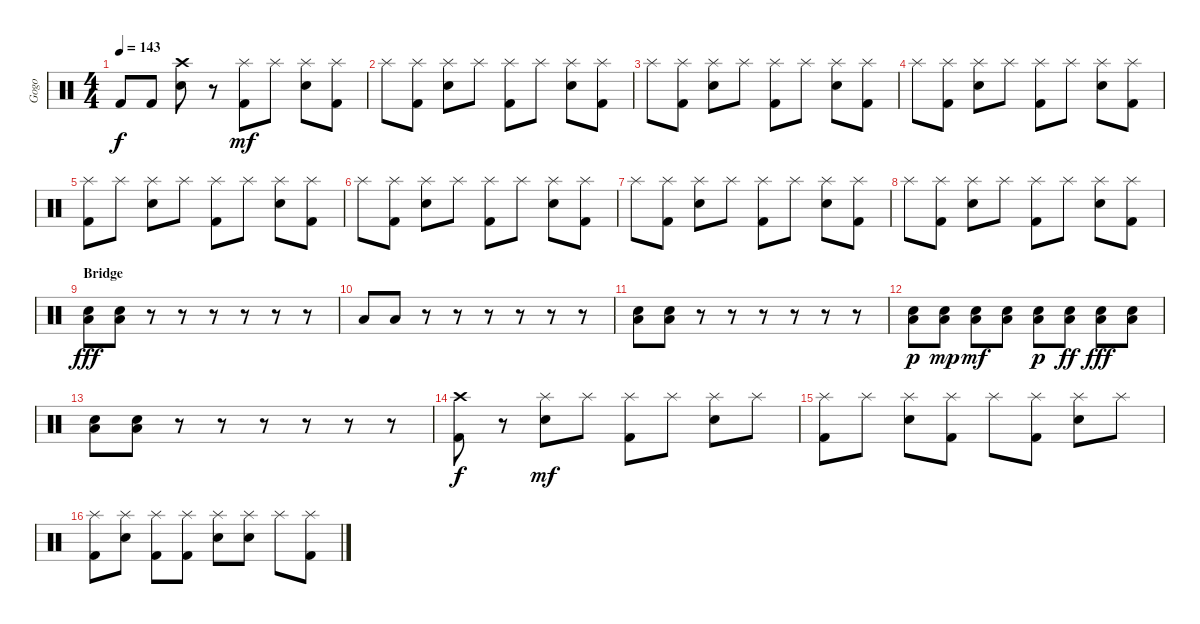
\track ("Gogo" "Gogo") {instrument percussion}
\staff {score}
\articulation defaults
\ts (4 4)
\tempo 143
\clef neutral
\ks c "Kick (hit) 2".8{dy f} "Kick (hit) 2".8
("Crash high (hit)" "Electric Snare (hit)").8 r.8 ("Splash (hit)" "Kick (hit) 2").8{dy mf} "Splash (hit)".8 ("Splash (hit)" "Electric Snare (hit)").8 ("Splash (hit)" "Kick (hit) 2").8 |
"Splash (hit)".8 ("Splash (hit)" "Kick (hit) 2").8 ("Splash (hit)" "Electric Snare (hit)").8 "Splash (hit)".8 ("Splash (hit)" "Kick (hit) 2").8 "Splash (hit)".8 ("Splash (hit)" "Electric Snare (hit)").8 ("Splash (hit)" "Kick (hit) 2").8 |
"Splash (hit)".8 ("Splash (hit)" "Kick (hit) 2").8 ("Splash (hit)" "Electric Snare (hit)").8 "Splash (hit)".8 ("Splash (hit)" "Kick (hit) 2").8 "Splash (hit)".8 ("Splash (hit)" "Electric Snare (hit)").8 ("Splash (hit)" "Kick (hit) 2").8 |
"Splash (hit)".8 ("Splash (hit)" "Kick (hit) 2").8 ("Splash (hit)" "Electric Snare (hit)").8 "Splash (hit)".8 ("Splash (hit)" "Kick (hit) 2").8 "Splash (hit)".8 ("Splash (hit)" "Electric Snare (hit)").8 ("Splash (hit)" "Kick (hit) 2").8 |
("Splash (hit)" "Kick (hit) 2").8 "Splash (hit)".8 ("Splash (hit)" "Electric Snare (hit)").8 "Splash (hit)".8 ("Splash (hit)" "Kick (hit) 2").8 "Splash (hit)".8 ("Splash (hit)" "Electric Snare (hit)").8 ("Splash (hit)" "Kick (hit) 2").8 |
"Splash (hit)".8 ("Splash (hit)" "Kick (hit) 2").8 ("Splash (hit)" "Electric Snare (hit)").8 "Splash (hit)".8 ("Splash (hit)" "Kick (hit) 2").8 "Splash (hit)".8 ("Splash (hit)" "Electric Snare (hit)").8 ("Splash (hit)" "Kick (hit) 2").8 |
"Splash (hit)".8 ("Splash (hit)" "Kick (hit) 2").8 ("Splash (hit)" "Electric Snare (hit)").8 "Splash (hit)".8 ("Splash (hit)" "Kick (hit) 2").8 "Splash (hit)".8 ("Splash (hit)" "Electric Snare (hit)").8 ("Splash (hit)" "Kick (hit) 2").8 |
"Splash (hit)".8 ("Splash (hit)" "Kick (hit) 2").8 ("Splash (hit)" "Electric Snare (hit)").8 "Splash (hit)".8 ("Splash (hit)" "Kick (hit) 2").8 "Splash (hit)".8 ("Splash (hit)" "Electric Snare (hit)").8 ("Splash (hit)" "Kick (hit) 2").8 |
\section ("" "Bridge")
("Electric Snare (hit)" "Low Floor Tom (hit)").8{dy fff} ("Electric Snare (hit)" "Low Floor Tom (hit)").8 r.8 r.8 r.8 r.8 r.8 r.8 |
"Low Floor Tom (hit)".8 "Low Floor Tom (hit)".8 r.8 r.8 r.8 r.8 r.8 r.8 |
("Electric Snare (hit)" "Low Floor Tom (hit)").8 ("Electric Snare (hit)" "Low Floor Tom (hit)").8 r.8 r.8 r.8 r.8 r.8 r.8 |
("Electric Snare (hit)" "Low Floor Tom (hit)").8{dy p} ("Electric Snare (hit)" "Low Floor Tom (hit)").8{dy mp} ("Electric Snare (hit)" "Low Floor Tom (hit)").8{dy mf} ("Electric Snare (hit)" "Low Floor Tom (hit)").8 ("Electric Snare (hit)" "Low Floor Tom (hit)").8{dy p} ("Electric Snare (hit)" "Low Floor Tom (hit)").8{dy ff} ("Electric Snare (hit)" "Low Floor Tom (hit)").8{dy fff} ("Electric Snare (hit)" "Low Floor Tom (hit)").8 |
("Electric Snare (hit)" "Low Floor Tom (hit)").8 ("Electric Snare (hit)" "Low Floor Tom (hit)").8 r.8 r.8 r.8 r.8 r.8 r.8 |
("Crash high (hit)" "Kick (hit) 2").8{dy f} r.8 ("Splash (hit)" "Electric Snare (hit)").8{dy mf} "Splash (hit)".8 ("Splash (hit)" "Kick (hit) 2").8 "Splash (hit)".8 ("Splash (hit)" "Electric Snare (hit)").8 "Splash (hit)".8 |
("Splash (hit)" "Kick (hit) 2").8 "Splash (hit)".8 ("Splash (hit)" "Electric Snare (hit)").8 ("Splash (hit)" "Kick (hit) 2").8 "Splash (hit)".8 ("Splash (hit)" "Kick (hit) 2").8 ("Splash (hit)" "Electric Snare (hit)").8 "Splash (hit)".8 |
("Splash (hit)" "Kick (hit) 2").8 ("Splash (hit)" "Electric Snare (hit)").8 ("Splash (hit)" "Kick (hit) 2").8 ("Splash (hit)" "Kick (hit) 2").8 ("Splash (hit)" "Electric Snare (hit)").8 ("Splash (hit)" "Electric Snare (hit)").8 "Splash (hit)".8 ("Splash (hit)" "Kick (hit) 2").8
